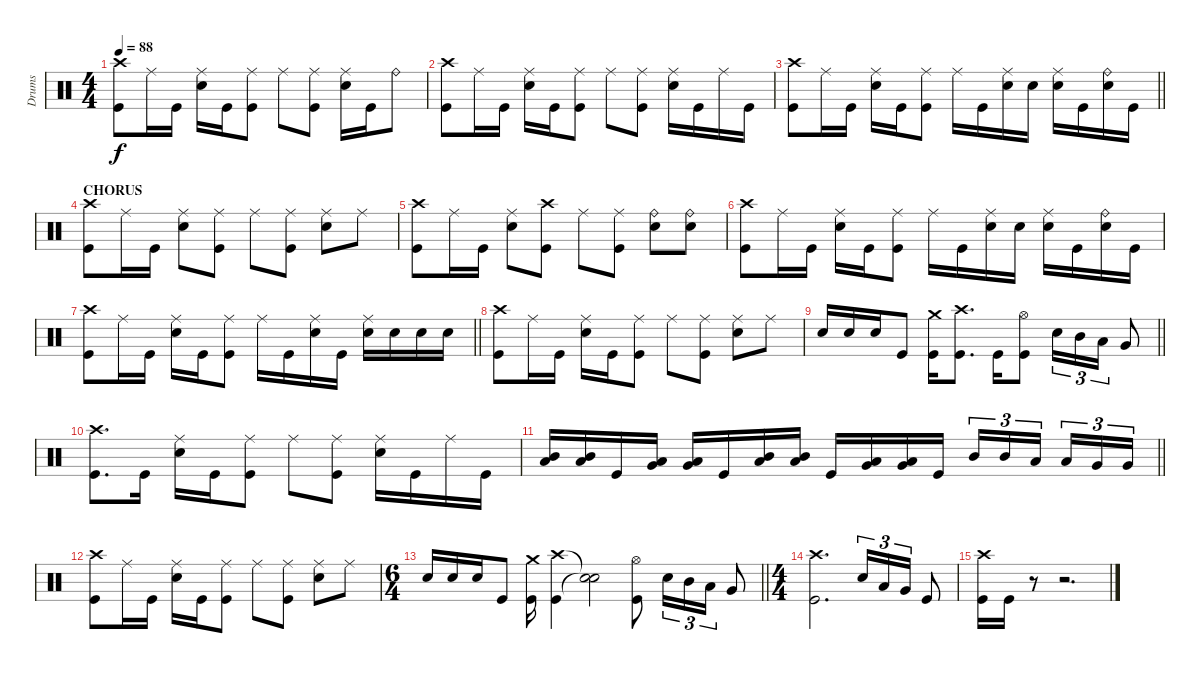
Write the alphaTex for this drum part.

\track ("Drums" "Drums") {instrument percussion}
\staff
\articulation defaults
\ts (4 4)
\tempo 88
\clef neutral
\ks c
("Crash high (hit)" "Kick (hit)").8{dy f} "Ride (middle)".16 "Kick (hit)".16 ("Ride (middle)" "Electric Snare (hit)").16 "Kick (hit)".16 ("Ride (middle)" "Kick (hit)").8 "Ride (middle)".8 ("Ride (middle)" "Kick (hit)").8 ("Ride (middle)" "Electric Snare (hit)").16 "Kick (hit)".16 "Ride (bell)".8 |
("Crash high (hit)" "Kick (hit)").8 "Ride (middle)".16 "Kick (hit)".16 ("Ride (middle)" "Electric Snare (hit)").16 "Kick (hit)".16 ("Ride (middle)" "Kick (hit)").8 "Ride (middle)".8 ("Ride (middle)" "Kick (hit)").8 ("Ride (middle)" "Electric Snare (hit)").16 "Kick (hit)".16 "Ride (middle)".16 "Kick (hit)".16 |
\barLineRight lightlight
("Crash high (hit)" "Kick (hit)").8 "Ride (middle)".16 "Kick (hit)".16 ("Ride (middle)" "Electric Snare (hit)").16 "Kick (hit)".16 ("Ride (middle)" "Kick (hit)").8 "Ride (middle)".16 "Kick (hit)".16 ("Ride (middle)" "Electric Snare (hit)").16 "Electric Snare (hit)".16 ("Ride (middle)" "Electric Snare (hit)").16 "Kick (hit)".16 ("Ride (bell)" "Electric Snare (hit)").16 "Kick (hit)".16 |
\section ("" "CHORUS")
("Crash high (hit)" "Kick (hit)").8 "Ride (middle)".16 "Kick (hit)".16 ("Ride (middle)" "Electric Snare (hit)").8 ("Ride (middle)" "Kick (hit)").8 "Ride (middle)".8 ("Ride (middle)" "Kick (hit)").8 ("Ride (middle)" "Electric Snare (hit)").8 "Ride (middle)".8 |
("Crash high (hit)" "Kick (hit)").8 "Ride (middle)".16 "Kick (hit)".16 ("Ride (middle)" "Electric Snare (hit)").8 ("Crash high (hit)" "Kick (hit)").8 "Ride (middle)".8 ("Ride (middle)" "Kick (hit)").8 ("Ride (bell)" "Electric Snare (hit)").8 ("Ride (bell)" "Electric Snare (hit)").8 |
("Crash high (hit)" "Kick (hit)").8 "Ride (middle)".16 "Kick (hit)".16 ("Ride (middle)" "Electric Snare (hit)").16 "Kick (hit)".16 ("Ride (middle)" "Kick (hit)").8 "Ride (middle)".16 "Kick (hit)".16 ("Ride (middle)" "Electric Snare (hit)").16 "Electric Snare (hit)".16 ("Ride (middle)" "Electric Snare (hit)").16 "Kick (hit)".16 ("Ride (bell)" "Electric Snare (hit)").16 "Kick (hit)".16 |
\barLineRight lightlight
("Crash high (hit)" "Kick (hit)").8 "Ride (middle)".16 "Kick (hit)".16 ("Ride (middle)" "Electric Snare (hit)").16 "Kick (hit)".16 ("Ride (middle)" "Kick (hit)").8 "Ride (middle)".16 "Kick (hit)".16 ("Ride (middle)" "Electric Snare (hit)").16 "Kick (hit)".16 ("Ride (middle)" "Electric Snare (hit)").16 "Electric Snare (hit)".16 "Electric Snare (hit)".16 "Electric Snare (hit)".16 |
("Crash high (hit)" "Kick (hit)").8 "Ride (middle)".16 "Kick (hit)".16 ("Ride (middle)" "Electric Snare (hit)").16 "Kick (hit)".16 ("Ride (middle)" "Kick (hit)").8 "Ride (middle)".8 ("Ride (middle)" "Kick (hit)").8 ("Ride (middle)" "Electric Snare (hit)").8 "Ride (middle)".8 |
\barLineRight lightlight "Electric Snare (hit)".16 "Electric Snare (hit)".16 "Electric Snare (hit)".16 "Kick (hit)".8
("Crash medium (hit)" "Kick (hit)").16 ("Crash high (hit)" "Kick (hit)").8{d} "Kick (hit)".16 ("Hi-Hat (open)" "Kick (hit)").8 "Electric Snare (hit)".16{tu (3 2)} "Mid Tom (hit)".16{tu (3 2)} "Low Tom (hit)".16{tu (3 2)} "Very Low Tom (hit)".8 |
("Crash high (hit)" "Kick (hit)").8{d} "Kick (hit)".16 ("Ride (middle)" "Electric Snare (hit)").16 "Kick (hit)".16 ("Ride (middle)" "Kick (hit)").8 "Ride (middle)".8 ("Ride (middle)" "Kick (hit)").8 ("Ride (middle)" "Electric Snare (hit)").16 "Kick (hit)".16 "Ride (middle)".16 "Kick (hit)".16 |
\barLineRight lightlight
("Mid Tom (hit)" "Low Tom (hit)").16 ("Mid Tom (hit)" "Low Tom (hit)").16 "Kick (hit)".16 ("Low Tom (hit)" "Very Low Tom (hit)").16 ("Low Tom (hit)" "Very Low Tom (hit)").16 "Kick (hit)".16 ("Mid Tom (hit)" "Low Tom (hit)").16 ("Mid Tom (hit)" "Low Tom (hit)").16 "Kick (hit)".16 ("Low Tom (hit)" "Very Low Tom (hit)").16 ("Low Tom (hit)" "Very Low Tom (hit)").16 "Kick (hit)".16 "Mid Tom (hit)".16{tu (3 2)} "Mid Tom (hit)".16{tu (3 2)} "Low Tom (hit)".16{tu (3 2) beam splitsecondary} "Low Tom (hit)".16{tu (3 2)} "Very Low Tom (hit)".16{tu (3 2)} "Very Low Tom (hit)".16{tu (3 2)} |
("Crash high (hit)" "Kick (hit)").8 "Ride (middle)".16 "Kick (hit)".16 ("Ride (middle)" "Electric Snare (hit)").16 "Kick (hit)".16 ("Ride (middle)" "Kick (hit)").8 "Ride (middle)".8 ("Ride (middle)" "Kick (hit)").8 ("Ride (middle)" "Electric Snare (hit)").8 "Ride (middle)".8 |
\ts (6 4)
\barLineRight lightlight "Electric Snare (hit)".16 "Electric Snare (hit)".16 "Electric Snare (hit)".16 "Kick (hit)".8
("Crash medium (hit)" "Kick (hit)").16 ("Crash high (hit)" "Kick (hit)").4 ("Snare (hit)"{t} "Snare (hit)"{t}).2 ("Hi-Hat (open)" "Kick (hit)").8 "Electric Snare (hit)".16{tu (3 2)} "Mid Tom (hit)".16{tu (3 2)} "Low Tom (hit)".16{tu (3 2)} "Very Low Tom (hit)".8 |
\ts (4 4)
("Crash high (hit)" "Kick (hit)").2{d} "Electric Snare (hit)".16{tu (3 2)} "Low Tom (hit)".16{tu (3 2)} "Very Low Tom (hit)".16{tu (3 2)} "Kick (hit)".8 |
("Crash high (hit)" "Kick (hit)").16 "Kick (hit)".16 r.8 r.2{d}
